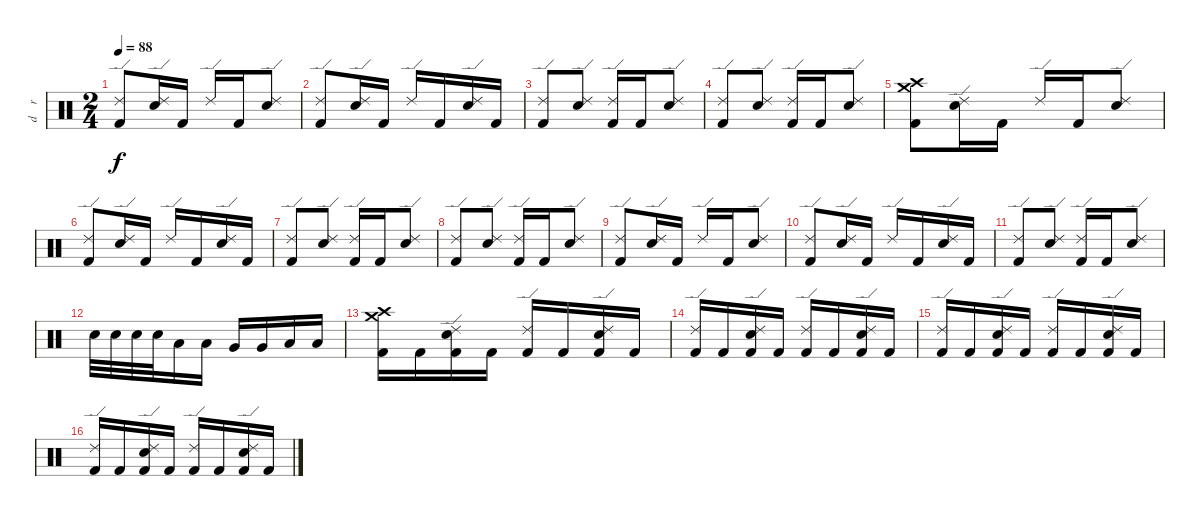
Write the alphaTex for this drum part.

\track ("d    r     u    m    s" "d    r    ") {instrument percussion}
\staff {score}
\articulation defaults
\ts (2 4)
\tempo 88
\clef neutral
\ks c
("Ride (edge) 2" "Kick (hit) 2").8{dy f} ("Ride (edge) 2" "Electric Snare (hit)").16 "Kick (hit) 2".16 "Ride (edge) 2".16 "Kick (hit) 2".16 ("Ride (edge) 2" "Electric Snare (hit)").8 |
("Ride (edge) 2" "Kick (hit) 2").8 ("Ride (edge) 2" "Electric Snare (hit)").16 "Kick (hit) 2".16 "Ride (edge) 2".16 "Kick (hit) 2".16 ("Ride (edge) 2" "Electric Snare (hit)").16 "Kick (hit) 2".16 |
("Ride (edge) 2" "Kick (hit) 2").8 ("Ride (edge) 2" "Electric Snare (hit)").8 ("Ride (edge) 2" "Kick (hit) 2").16 "Kick (hit) 2".16 ("Ride (edge) 2" "Electric Snare (hit)").8 |
("Ride (edge) 2" "Kick (hit) 2").8 ("Ride (edge) 2" "Electric Snare (hit)").8 ("Ride (edge) 2" "Kick (hit) 2").16 "Kick (hit) 2".16 ("Ride (edge) 2" "Electric Snare (hit)").8 |
("Crash high (hit)" "Crash medium (hit)" "Kick (hit) 2").8 ("Ride (edge) 2" "Electric Snare (hit)").16 "Kick (hit) 2".16 "Ride (edge) 2".16 "Kick (hit) 2".16 ("Ride (edge) 2" "Electric Snare (hit)").8 |
("Ride (edge) 2" "Kick (hit) 2").8 ("Ride (edge) 2" "Electric Snare (hit)").16 "Kick (hit) 2".16 "Ride (edge) 2".16 "Kick (hit) 2".16 ("Ride (edge) 2" "Electric Snare (hit)").16 "Kick (hit) 2".16 |
("Ride (edge) 2" "Kick (hit) 2").8 ("Ride (edge) 2" "Electric Snare (hit)").8 ("Ride (edge) 2" "Kick (hit) 2").16 "Kick (hit) 2".16 ("Ride (edge) 2" "Electric Snare (hit)").8 |
("Ride (edge) 2" "Kick (hit) 2").8 ("Ride (edge) 2" "Electric Snare (hit)").8 ("Ride (edge) 2" "Kick (hit) 2").16 "Kick (hit) 2".16 ("Ride (edge) 2" "Electric Snare (hit)").8 |
("Ride (edge) 2" "Kick (hit) 2").8 ("Ride (edge) 2" "Electric Snare (hit)").16 "Kick (hit) 2".16 "Ride (edge) 2".16 "Kick (hit) 2".16 ("Ride (edge) 2" "Electric Snare (hit)").8 |
("Ride (edge) 2" "Kick (hit) 2").8 ("Ride (edge) 2" "Electric Snare (hit)").16 "Kick (hit) 2".16 "Ride (edge) 2".16 "Kick (hit) 2".16 ("Ride (edge) 2" "Electric Snare (hit)").16 "Kick (hit) 2".16 |
("Ride (edge) 2" "Kick (hit) 2").8 ("Ride (edge) 2" "Electric Snare (hit)").8 ("Ride (edge) 2" "Kick (hit) 2").16 "Kick (hit) 2".16 ("Ride (edge) 2" "Electric Snare (hit)").8 |
"Electric Snare (hit)".32 "Electric Snare (hit)".32 "Electric Snare (hit)".32 "Electric Snare (hit)".32 "Low Tom (hit)".16 "Low Tom (hit)".16 "Very Low Tom (hit)".16 "Very Low Tom (hit)".16 "Low Floor Tom (hit)".16 "Low Floor Tom (hit)".16 |
("Crash high (hit)" "Crash medium (hit)" "Kick (hit) 2").16 "Kick (hit) 2".16 ("Ride (edge) 2" "Electric Snare (hit)" "Kick (hit) 2").16 "Kick (hit) 2".16 ("Ride (edge) 2" "Kick (hit) 2").16 "Kick (hit) 2".16 ("Ride (edge) 2" "Electric Snare (hit)" "Kick (hit) 2").16 "Kick (hit) 2".16 |
("Ride (edge) 2" "Kick (hit) 2").16 "Kick (hit) 2".16 ("Ride (edge) 2" "Electric Snare (hit)" "Kick (hit) 2").16 "Kick (hit) 2".16 ("Ride (edge) 2" "Kick (hit) 2").16 "Kick (hit) 2".16 ("Ride (edge) 2" "Electric Snare (hit)" "Kick (hit) 2").16 "Kick (hit) 2".16 |
("Ride (edge) 2" "Kick (hit) 2").16 "Kick (hit) 2".16 ("Ride (edge) 2" "Electric Snare (hit)" "Kick (hit) 2").16 "Kick (hit) 2".16 ("Ride (edge) 2" "Kick (hit) 2").16 "Kick (hit) 2".16 ("Ride (edge) 2" "Electric Snare (hit)" "Kick (hit) 2").16 "Kick (hit) 2".16 |
("Ride (edge) 2" "Kick (hit) 2").16 "Kick (hit) 2".16 ("Ride (edge) 2" "Electric Snare (hit)" "Kick (hit) 2").16 "Kick (hit) 2".16 ("Ride (edge) 2" "Kick (hit) 2").16 "Kick (hit) 2".16 ("Ride (edge) 2" "Electric Snare (hit)" "Kick (hit) 2").16 "Kick (hit) 2".16
